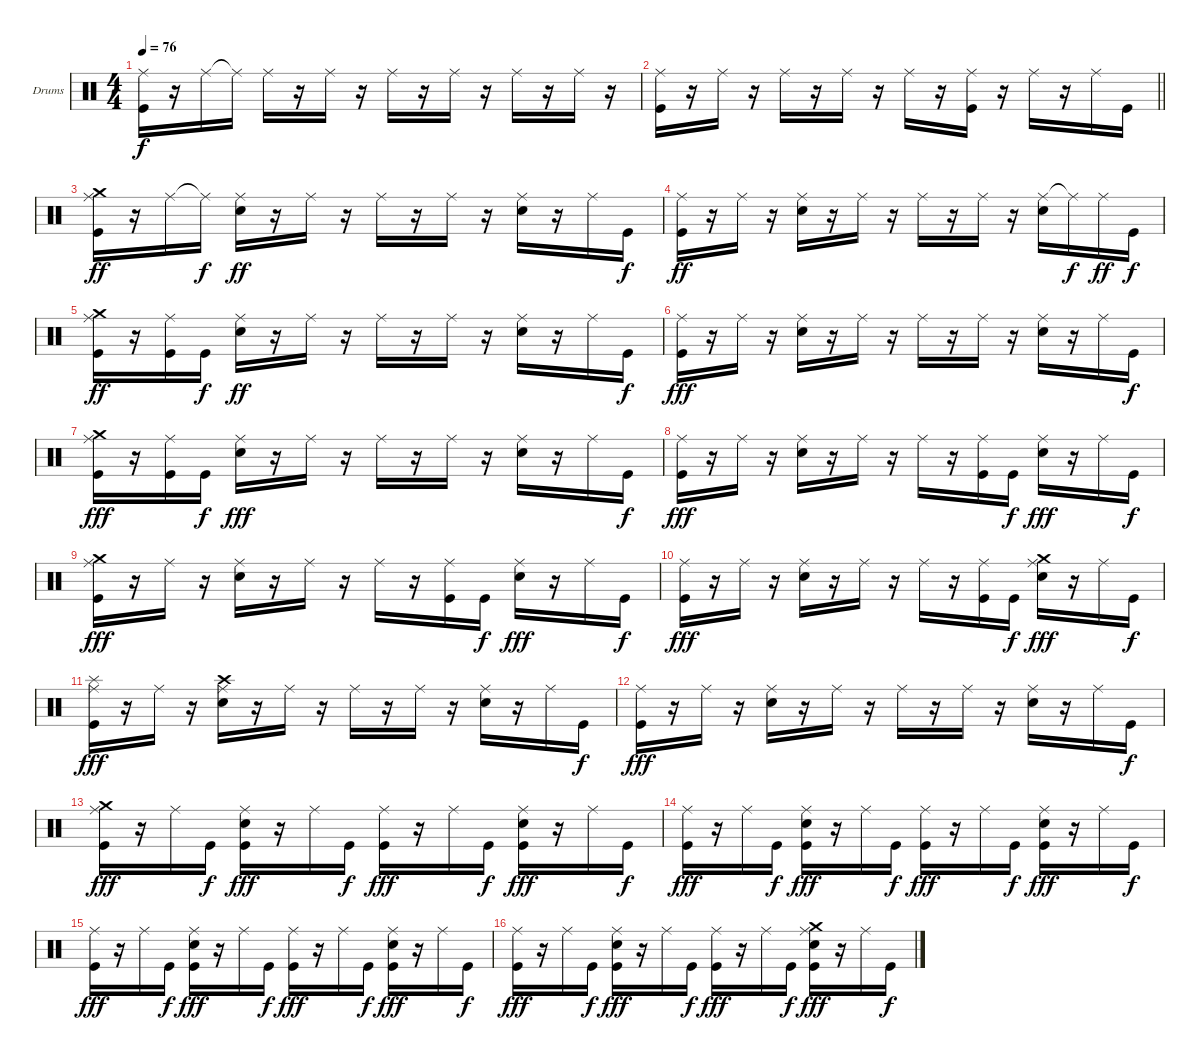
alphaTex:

\bracketExtendMode groupsimilarinstruments
\firstSystemTrackNameOrientation horizontal
\otherSystemsTrackNameOrientation horizontal
\track ("Drumkit" "Drums") {instrument percussion}
\staff {score}
\articulation defaults
\ts (4 4)
\tempo 76
\clef neutral
\ks c
("Ride (middle)" "Kick (hit)").16{dy f} r.16 "Ride (middle)".16 "Ride (middle)"{t}.16 "Ride (middle)".16 r.16 "Ride (middle)".16 r.16 "Ride (middle)".16 r.16 "Ride (middle)".16 r.16 "Ride (middle)".16 r.16 "Ride (middle)".16 r.16 |
\barLineRight lightlight
("Ride (middle)" "Kick (hit)").16 r.16 "Ride (middle)".16 r.16 "Ride (middle)".16 r.16 "Ride (middle)".16 r.16 "Ride (middle)".16 r.16 ("Ride (middle)" "Kick (hit)").16 r.16 "Ride (middle)".16 r.16 "Ride (middle)".16 "Kick (hit)".16 |
("Ride (middle)" "Crash medium (hit)" "Kick (hit)").16{dy ff} r.16 "Ride (middle)".16 "Ride (middle)"{t}.16{dy f} ("Ride (middle)" "Snare (hit) 2").16{dy ff} r.16 "Ride (middle)".16 r.16 "Ride (middle)".16 r.16 "Ride (middle)".16 r.16 ("Ride (middle)" "Snare (hit) 2").16 r.16 "Ride (middle)".16 "Kick (hit)".16{dy f} |
("Ride (middle)" "Kick (hit)").16{dy ff} r.16 "Ride (middle)".16 r.16 ("Ride (middle)" "Snare (hit) 2").16 r.16 "Ride (middle)".16 r.16 "Ride (middle)".16 r.16 "Ride (middle)".16 r.16 ("Ride (middle)" "Snare (hit) 2").16 "Ride (middle)"{t}.16{dy f} "Ride (middle)".16{dy ff} "Kick (hit)".16{dy f} |
("Ride (middle)" "Crash medium (hit)" "Kick (hit)").16{dy ff} r.16 ("Ride (middle)" "Kick (hit)").16 "Kick (hit)".16{dy f} ("Ride (middle)" "Snare (hit) 2").16{dy ff} r.16 "Ride (middle)".16 r.16 "Ride (middle)".16 r.16 "Ride (middle)".16 r.16 ("Ride (middle)" "Snare (hit) 2").16 r.16 "Ride (middle)".16 "Kick (hit)".16{dy f} |
("Ride (middle)" "Kick (hit)").16{dy fff} r.16 "Ride (middle)".16 r.16 ("Ride (middle)" "Snare (hit) 2").16 r.16 "Ride (middle)".16 r.16 "Ride (middle)".16 r.16 "Ride (middle)".16 r.16 ("Ride (middle)" "Snare (hit) 2").16 r.16 "Ride (middle)".16 "Kick (hit)".16{dy f} |
("Ride (middle)" "Crash medium (hit)" "Kick (hit)").16{dy fff} r.16 ("Ride (middle)" "Kick (hit)").16 "Kick (hit)".16{dy f} ("Ride (middle)" "Snare (hit) 2").16{dy fff} r.16 "Ride (middle)".16 r.16 "Ride (middle)".16 r.16 "Ride (middle)".16 r.16 ("Ride (middle)" "Snare (hit) 2").16 r.16 "Ride (middle)".16 "Kick (hit)".16{dy f} |
("Ride (middle)" "Kick (hit)").16{dy fff} r.16 "Ride (middle)".16 r.16 ("Ride (middle)" "Snare (hit) 2").16 r.16 "Ride (middle)".16 r.16 "Ride (middle)".16 r.16 ("Ride (middle)" "Kick (hit)").16 "Kick (hit)".16{dy f} ("Ride (middle)" "Snare (hit) 2").16{dy fff} r.16 "Ride (middle)".16 "Kick (hit)".16{dy f} |
("Ride (middle)" "Crash medium (hit)" "Kick (hit)").16{dy fff} r.16 "Ride (middle)".16 r.16 ("Ride (middle)" "Snare (hit) 2").16 r.16 "Ride (middle)".16 r.16 "Ride (middle)".16 r.16 ("Ride (middle)" "Kick (hit)").16 "Kick (hit)".16{dy f} ("Ride (middle)" "Snare (hit) 2").16{dy fff} r.16 "Ride (middle)".16 "Kick (hit)".16{dy f} |
("Ride (middle)" "Kick (hit)").16{dy fff} r.16 "Ride (middle)".16 r.16 ("Ride (middle)" "Snare (hit) 2").16 r.16 "Ride (middle)".16 r.16 "Ride (middle)".16 r.16 ("Ride (middle)" "Kick (hit)").16 "Kick (hit)".16{dy f} ("Ride (middle)" "Crash medium (hit)" "Snare (hit) 2").16{dy fff} r.16 "Ride (middle)".16 "Kick (hit)".16{dy f} |
("Ride (middle)" "Splash (hit)" "Kick (hit)").16{dy fff} r.16 "Ride (middle)".16 r.16 ("Ride (middle)" "Crash high (hit)" "Snare (hit) 2").16 r.16 "Ride (middle)".16 r.16 "Ride (middle)".16 r.16 "Ride (middle)".16 r.16 ("Ride (middle)" "Snare (hit) 2").16 r.16 "Ride (middle)".16 "Kick (hit)".16{dy f} |
("Ride (middle)" "Kick (hit)").16{dy fff} r.16 "Ride (middle)".16 r.16 ("Ride (middle)" "Snare (hit) 2").16 r.16 "Ride (middle)".16 r.16 "Ride (middle)".16 r.16 "Ride (middle)".16 r.16 ("Ride (middle)" "Snare (hit) 2").16 r.16 "Ride (middle)".16 "Kick (hit)".16{dy f} |
("Ride (middle)" "Crash medium (hit)" "Kick (hit)").16{dy fff} r.16 "Ride (middle)".16 "Kick (hit)".16{dy f} ("Ride (middle)" "Snare (hit) 2" "Kick (hit)").16{dy fff} r.16 "Ride (middle)".16 "Kick (hit)".16{dy f} ("Ride (middle)" "Kick (hit)").16{dy fff} r.16 "Ride (middle)".16 "Kick (hit)".16{dy f} ("Ride (middle)" "Snare (hit) 2" "Kick (hit)").16{dy fff} r.16 "Ride (middle)".16 "Kick (hit)".16{dy f} |
("Ride (middle)" "Kick (hit)").16{dy fff} r.16 "Ride (middle)".16 "Kick (hit)".16{dy f} ("Ride (middle)" "Snare (hit) 2" "Kick (hit)").16{dy fff} r.16 "Ride (middle)".16 "Kick (hit)".16{dy f} ("Ride (middle)" "Kick (hit)").16{dy fff} r.16 "Ride (middle)".16 "Kick (hit)".16{dy f} ("Ride (middle)" "Snare (hit) 2" "Kick (hit)").16{dy fff} r.16 "Ride (middle)".16 "Kick (hit)".16{dy f} |
("Ride (middle)" "Kick (hit)").16{dy fff} r.16 "Ride (middle)".16 "Kick (hit)".16{dy f} ("Ride (middle)" "Snare (hit) 2" "Kick (hit)").16{dy fff} r.16 "Ride (middle)".16 "Kick (hit)".16{dy f} ("Ride (middle)" "Kick (hit)").16{dy fff} r.16 "Ride (middle)".16 "Kick (hit)".16{dy f} ("Ride (middle)" "Snare (hit) 2" "Kick (hit)").16{dy fff} r.16 "Ride (middle)".16 "Kick (hit)".16{dy f} |
("Ride (middle)" "Kick (hit)").16{dy fff} r.16 "Ride (middle)".16 "Kick (hit)".16{dy f} ("Ride (middle)" "Snare (hit) 2" "Kick (hit)").16{dy fff} r.16 "Ride (middle)".16 "Kick (hit)".16{dy f} ("Ride (middle)" "Kick (hit)").16{dy fff} r.16 "Ride (middle)".16 "Kick (hit)".16{dy f} ("Ride (middle)" "Crash medium (hit)" "Snare (hit) 2" "Kick (hit)").16{dy fff} r.16 "Ride (middle)".16 "Kick (hit)".16{dy f}
